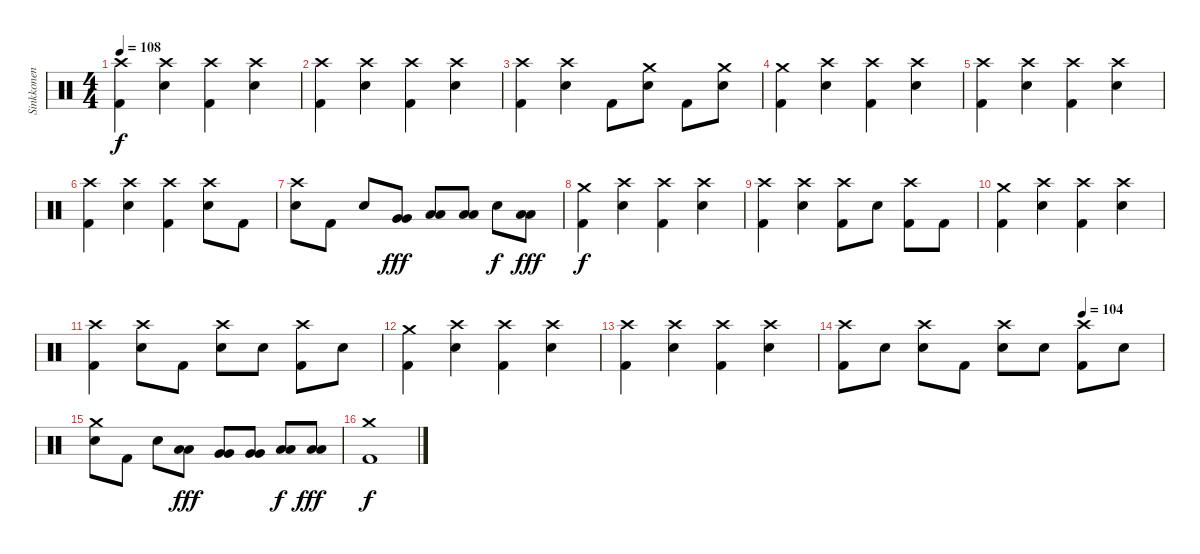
\track ("Sinkkonen" "Sinkkonen") {instrument percussion}
\staff {score}
\articulation defaults
\ts (4 4)
\tempo 108
\clef neutral
\ks c
("Kick (hit) 2" "Crash high (hit)").4{dy f} ("Crash high (hit)" "Snare (hit) 2").4 ("Kick (hit) 2" "Crash high (hit)").4 ("Crash high (hit)" "Snare (hit) 2").4 |
("Kick (hit) 2" "Crash high (hit)").4 ("Crash high (hit)" "Snare (hit) 2").4 ("Kick (hit) 2" "Crash high (hit)").4 ("Crash high (hit)" "Snare (hit) 2").4 |
("Kick (hit) 2" "Crash high (hit)").4 ("Crash high (hit)" "Snare (hit) 2").4 "Kick (hit) 2".8 ("Crash medium (hit)" "Snare (hit) 2").8 "Kick (hit) 2".8 ("Crash medium (hit)" "Snare (hit) 2").8 |
("Kick (hit) 2" "Crash medium (hit)").4 ("Crash high (hit)" "Snare (hit) 2").4 ("Kick (hit) 2" "Crash high (hit)").4 ("Crash high (hit)" "Snare (hit) 2").4 |
("Kick (hit) 2" "Crash high (hit)").4 ("Crash high (hit)" "Snare (hit) 2").4 ("Kick (hit) 2" "Crash high (hit)").4 ("Crash high (hit)" "Snare (hit) 2").4 |
("Kick (hit) 2" "Crash high (hit)").4 ("Crash high (hit)" "Snare (hit) 2").4 ("Kick (hit) 2" "Crash high (hit)").4 ("Crash high (hit)" "Snare (hit) 2").8 "Kick (hit) 2".8 |
("Crash high (hit)" "Snare (hit) 2").8 "Kick (hit) 2".8 "Snare (hit) 2".8 ("Very Low Tom (hit)" "Very Low Tom (hit)").8{dy fff} ("Low Floor Tom (hit)" "Low Floor Tom (hit)").8 ("Low Floor Tom (hit)" "Low Floor Tom (hit)").8 "Snare (hit) 2".8{dy f} ("Low Floor Tom (hit)" "Low Floor Tom (hit)").8{dy fff} |
("Kick (hit) 2" "Crash medium (hit)").4{dy f} ("Crash high (hit)" "Snare (hit) 2").4 ("Kick (hit) 2" "Crash high (hit)").4 ("Crash high (hit)" "Snare (hit) 2").4 |
("Kick (hit) 2" "Crash high (hit)").4 ("Crash high (hit)" "Snare (hit) 2").4 ("Kick (hit) 2" "Crash high (hit)").8 "Snare (hit) 2".8 ("Kick (hit) 2" "Crash high (hit)").8 "Kick (hit) 2".8 |
("Kick (hit) 2" "Crash medium (hit)").4 ("Crash high (hit)" "Snare (hit) 2").4 ("Kick (hit) 2" "Crash high (hit)").4 ("Crash high (hit)" "Snare (hit) 2").4 |
("Kick (hit) 2" "Crash high (hit)").4 ("Crash high (hit)" "Snare (hit) 2").8 "Kick (hit) 2".8 ("Crash high (hit)" "Snare (hit) 2").8 "Snare (hit) 2".8 ("Kick (hit) 2" "Crash high (hit)").8 "Snare (hit) 2".8 |
("Kick (hit) 2" "Crash medium (hit)").4 ("Crash high (hit)" "Snare (hit) 2").4 ("Kick (hit) 2" "Crash high (hit)").4 ("Crash high (hit)" "Snare (hit) 2").4 |
("Kick (hit) 2" "Crash high (hit)").4 ("Crash high (hit)" "Snare (hit) 2").4 ("Kick (hit) 2" "Crash high (hit)").4 ("Crash high (hit)" "Snare (hit) 2").4 |
\tempo (104 0.75)
("Kick (hit) 2" "Crash high (hit)").8 "Snare (hit) 2".8 ("Crash high (hit)" "Snare (hit) 2").8 "Kick (hit) 2".8 ("Crash high (hit)" "Snare (hit) 2").8 "Snare (hit) 2".8 ("Kick (hit) 2" "Crash high (hit)").8 "Snare (hit) 2".8 |
("Crash medium (hit)" "Snare (hit) 2").8 "Kick (hit) 2".8 "Snare (hit) 2".8 ("Low Tom (hit)" "Low Tom (hit)").8{dy fff} ("Very Low Tom (hit)" "Very Low Tom (hit)").8 ("Very Low Tom (hit)" "Very Low Tom (hit)").8 ("Low Floor Tom (hit)" "Low Floor Tom (hit)").8{dy f} ("Low Floor Tom (hit)" "Low Floor Tom (hit)").8{dy fff} |
("Kick (hit) 2" "Crash medium (hit)").1{dy f}
